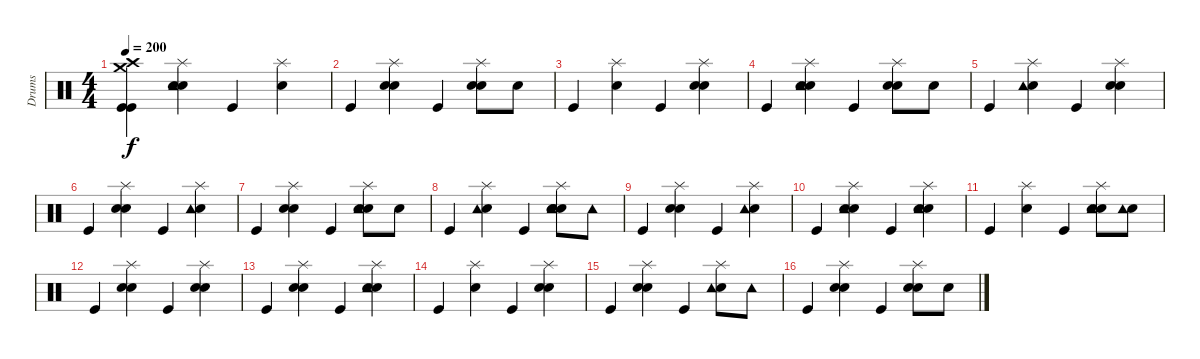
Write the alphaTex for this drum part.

\track ("Drums" "Drums") {instrument percussion}
\staff {score}
\articulation defaults
\ts (4 4)
\tempo 200
\clef neutral
\ks c
("Kick (hit)" "Kick (hit)" "Crash high (hit)" "Crash medium (hit)").4{dy f} ("Snare (hit) 2" "Electric Snare (hit)" "Tambourine (hit)" "Splash (hit)").4 "Kick (hit)".4 ("Snare (hit) 2" "Splash (hit)").4 |
"Kick (hit)".4 ("Snare (hit) 2" "Electric Snare (hit)" "Splash (hit)").4 "Kick (hit)".4 ("Snare (hit) 2" "Electric Snare (hit)" "Splash (hit)").8 "Electric Snare (hit)".8 |
"Kick (hit)".4 ("Snare (hit) 2" "Splash (hit)").4 "Kick (hit)".4 ("Snare (hit) 2" "Electric Snare (hit)" "Splash (hit)").4 |
"Kick (hit)".4 ("Snare (hit) 2" "Electric Snare (hit)" "Tambourine (hit)" "Splash (hit)").4 "Kick (hit)".4 ("Snare (hit) 2" "Electric Snare (hit)" "Splash (hit)").8 "Electric Snare (hit)".8 |
"Kick (hit)".4 ("Snare (hit) 2" "Tambourine (hit)" "Splash (hit)").4 "Kick (hit)".4 ("Snare (hit) 2" "Electric Snare (hit)" "Splash (hit)").4 |
"Kick (hit)".4 ("Snare (hit) 2" "Electric Snare (hit)" "Splash (hit)").4 "Kick (hit)".4 ("Snare (hit) 2" "Tambourine (hit)" "Splash (hit)").4 |
"Kick (hit)".4 ("Snare (hit) 2" "Electric Snare (hit)" "Splash (hit)").4 "Kick (hit)".4 ("Snare (hit) 2" "Electric Snare (hit)" "Tambourine (hit)" "Splash (hit)").8 "Electric Snare (hit)".8 |
"Kick (hit)".4 ("Snare (hit) 2" "Tambourine (hit)" "Splash (hit)").4 "Kick (hit)".4 ("Snare (hit) 2" "Electric Snare (hit)" "Electric Snare (hit)" "Tambourine (hit)" "Splash (hit)").8 "Tambourine (hit)".8 |
"Kick (hit)".4 ("Snare (hit) 2" "Electric Snare (hit)" "Splash (hit)").4 "Kick (hit)".4 ("Snare (hit) 2" "Tambourine (hit)" "Splash (hit)").4 |
"Kick (hit)".4 ("Snare (hit) 2" "Electric Snare (hit)" "Tambourine (hit)" "Splash (hit)").4 "Kick (hit)".4 ("Snare (hit) 2" "Electric Snare (hit)" "Tambourine (hit)" "Splash (hit)").4 |
"Kick (hit)".4 ("Snare (hit) 2" "Splash (hit)").4 "Kick (hit)".4 ("Snare (hit) 2" "Electric Snare (hit)" "Tambourine (hit)" "Splash (hit)").8 ("Electric Snare (hit)" "Tambourine (hit)").8 |
"Kick (hit)".4 ("Snare (hit) 2" "Electric Snare (hit)" "Splash (hit)").4 "Kick (hit)".4 ("Snare (hit) 2" "Electric Snare (hit)" "Splash (hit)").4 |
"Kick (hit)".4 ("Snare (hit) 2" "Electric Snare (hit)" "Splash (hit)").4 "Kick (hit)".4 ("Snare (hit) 2" "Electric Snare (hit)" "Tambourine (hit)" "Splash (hit)").4 |
"Kick (hit)".4 ("Snare (hit) 2" "Splash (hit)").4 "Kick (hit)".4 ("Snare (hit) 2" "Electric Snare (hit)" "Splash (hit)").4 |
"Kick (hit)".4 ("Snare (hit) 2" "Electric Snare (hit)" "Splash (hit)").4 "Kick (hit)".4 ("Snare (hit) 2" "Tambourine (hit)" "Splash (hit)").8 "Tambourine (hit)".8 |
"Kick (hit)".4 ("Snare (hit) 2" "Electric Snare (hit)" "Splash (hit)").4 "Kick (hit)".4 ("Snare (hit) 2" "Electric Snare (hit)" "Splash (hit)").8 "Electric Snare (hit)".8
